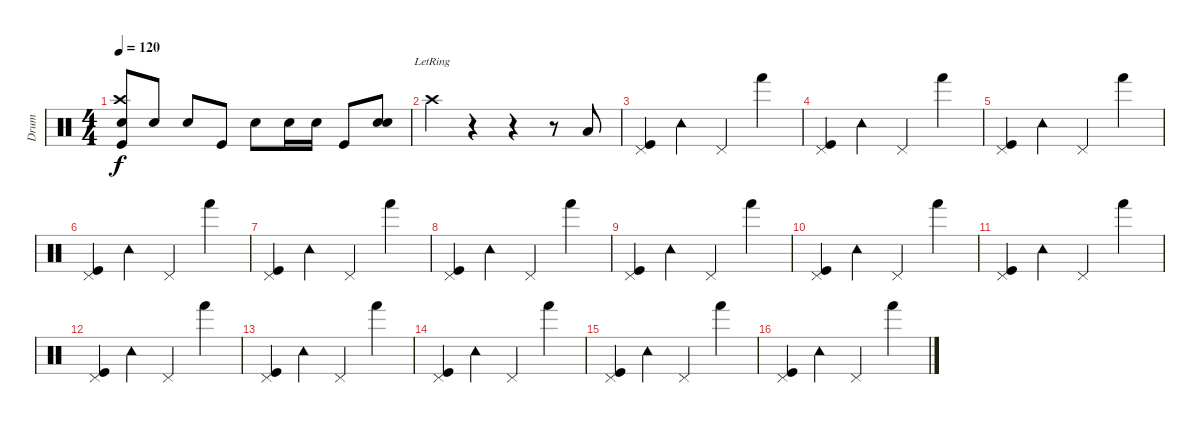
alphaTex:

\track ("Drum" "Drum") {instrument percussion}
\staff {score}
\articulation defaults
\ts (4 4)
\tempo 120
\clef neutral
\ks c
("Electric Snare (hit)" "Crash high (hit)" "Kick (hit)").8{dy f} "Snare (hit) 2".8 "Electric Snare (hit)".8 "Kick (hit)".8 "Snare (hit) 2".8 "Electric Snare (hit)".16 "Electric Snare (hit)".16 "Kick (hit)".8 ("Electric Snare (hit)" "Snare (hit) 2").8 |
"Crash high (hit)"{lr}.4 r.4 r.4 r.8 "Low Tom (hit)".8 |
("Pedal Hi-Hat (hit)" "Kick (hit)").4 "Tambourine (hit)".4 "Pedal Hi-Hat (hit)".4 "Hand (hit)".4 |
("Pedal Hi-Hat (hit)" "Kick (hit)").4 "Tambourine (hit)".4 "Pedal Hi-Hat (hit)".4 "Hand (hit)".4 |
("Pedal Hi-Hat (hit)" "Kick (hit)").4 "Tambourine (hit)".4 "Pedal Hi-Hat (hit)".4 "Hand (hit)".4 |
("Pedal Hi-Hat (hit)" "Kick (hit)").4 "Tambourine (hit)".4 "Pedal Hi-Hat (hit)".4 "Hand (hit)".4 |
("Pedal Hi-Hat (hit)" "Kick (hit)").4 "Tambourine (hit)".4 "Pedal Hi-Hat (hit)".4 "Hand (hit)".4 |
("Pedal Hi-Hat (hit)" "Kick (hit)").4 "Tambourine (hit)".4 "Pedal Hi-Hat (hit)".4 "Hand (hit)".4 |
("Pedal Hi-Hat (hit)" "Kick (hit)").4 "Tambourine (hit)".4 "Pedal Hi-Hat (hit)".4 "Hand (hit)".4 |
("Pedal Hi-Hat (hit)" "Kick (hit)").4 "Tambourine (hit)".4 "Pedal Hi-Hat (hit)".4 "Hand (hit)".4 |
("Pedal Hi-Hat (hit)" "Kick (hit)").4 "Tambourine (hit)".4 "Pedal Hi-Hat (hit)".4 "Hand (hit)".4 |
("Pedal Hi-Hat (hit)" "Kick (hit)").4 "Tambourine (hit)".4 "Pedal Hi-Hat (hit)".4 "Hand (hit)".4 |
("Pedal Hi-Hat (hit)" "Kick (hit)").4 "Tambourine (hit)".4 "Pedal Hi-Hat (hit)".4 "Hand (hit)".4 |
("Pedal Hi-Hat (hit)" "Kick (hit)").4 "Tambourine (hit)".4 "Pedal Hi-Hat (hit)".4 "Hand (hit)".4 |
("Pedal Hi-Hat (hit)" "Kick (hit)").4 "Tambourine (hit)".4 "Pedal Hi-Hat (hit)".4 "Hand (hit)".4 |
("Pedal Hi-Hat (hit)" "Kick (hit)").4 "Tambourine (hit)".4 "Pedal Hi-Hat (hit)".4 "Hand (hit)".4
